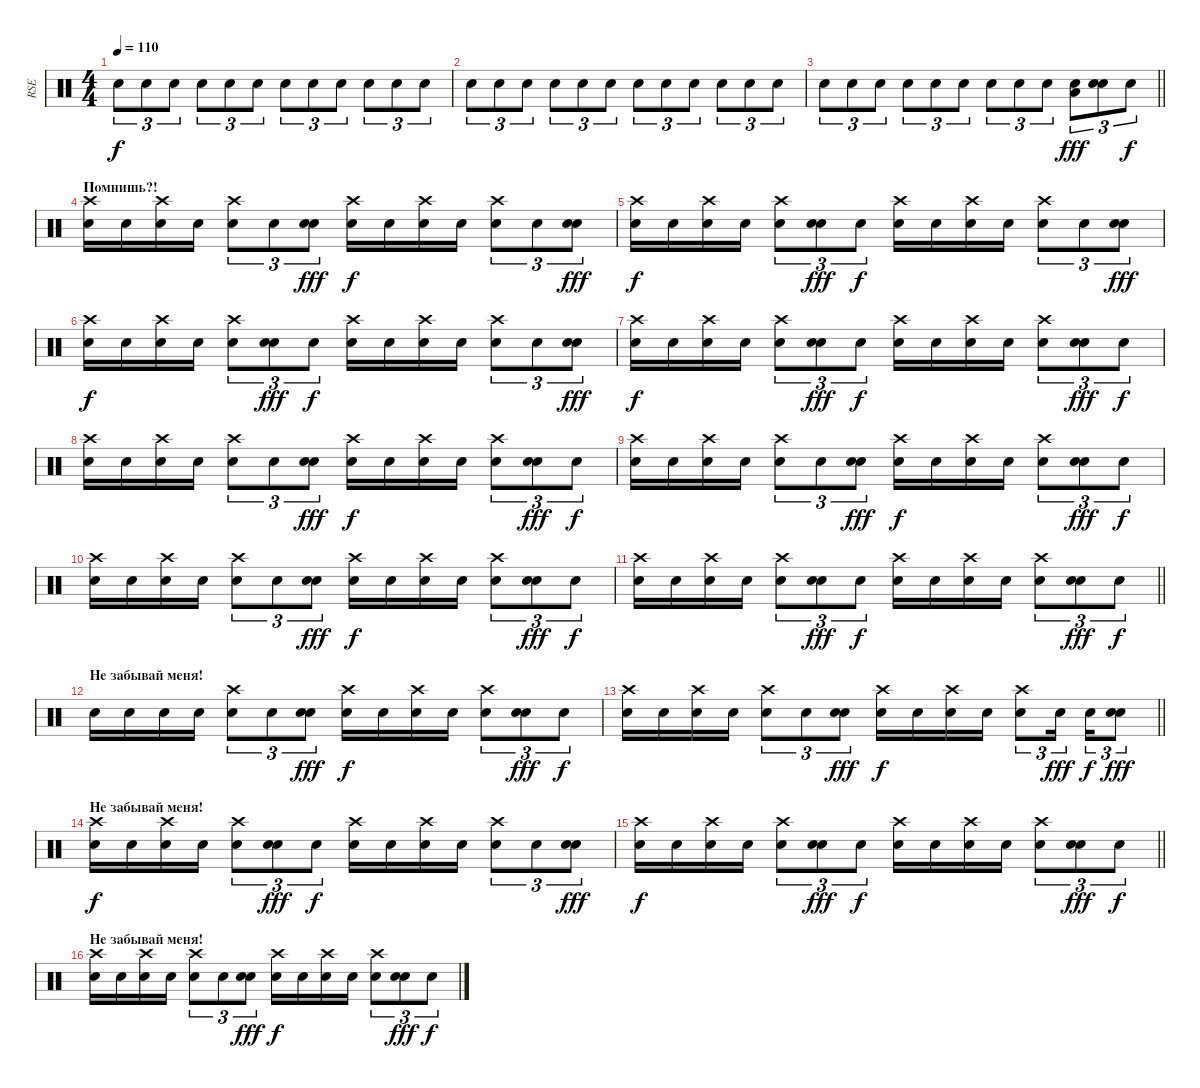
\track ("RSE" "RSE") {instrument percussion}
\staff
\articulation defaults
\ts (4 4)
\tempo 110
\clef neutral
\ks c "Snare (hit)".8{tu (3 2) dy f} "Snare (hit)".8{tu (3 2)} "Snare (hit)".8{tu (3 2)} "Snare (hit)".8{tu (3 2)} "Snare (hit)".8{tu (3 2)} "Snare (hit)".8{tu (3 2)} "Snare (hit)".8{tu (3 2)} "Snare (hit)".8{tu (3 2)} "Snare (hit)".8{tu (3 2)} "Snare (hit)".8{tu (3 2)} "Snare (hit)".8{tu (3 2)} "Snare (hit)".8{tu (3 2)}
|
"Snare (hit)".8{tu (3 2)} "Snare (hit)".8{tu (3 2)} "Snare (hit)".8{tu (3 2)} "Snare (hit)".8{tu (3 2)} "Snare (hit)".8{tu (3 2)} "Snare (hit)".8{tu (3 2)} "Snare (hit)".8{tu (3 2)} "Snare (hit)".8{tu (3 2)} "Snare (hit)".8{tu (3 2)} "Snare (hit)".8{tu (3 2)} "Snare (hit)".8{tu (3 2)} "Snare (hit)".8{tu (3 2)} |
\barLineRight lightlight "Snare (hit)".8{tu (3 2)} "Snare (hit)".8{tu (3 2)} "Snare (hit)".8{tu (3 2)} "Snare (hit)".8{tu (3 2)} "Snare (hit)".8{tu (3 2)} "Snare (hit)".8{tu (3 2)} "Snare (hit)".8{tu (3 2)} "Snare (hit)".8{tu (3 2)} "Snare (hit)".8{tu (3 2)}
("Low Floor Tom (hit)" "Snare (hit)").8{tu (3 2) dy fff} ("Electric Snare (hit)" "Snare (hit)").8{tu (3 2)} "Snare (hit)".8{tu (3 2) dy f} |
\section ("" "Помнишь?!")
("Crash high (hit)" "Snare (hit)").16 "Snare (hit)".16 ("Crash high (hit)" "Snare (hit)").16 "Snare (hit)".16 ("Crash high (hit)" "Snare (hit)").8{tu (3 2)} "Snare (hit)".8{tu (3 2)} ("Electric Snare (hit)" "Snare (hit)").8{tu (3 2) dy fff} ("Crash high (hit)" "Snare (hit)").16{dy f} "Snare (hit)".16 ("Crash high (hit)" "Snare (hit)").16 "Snare (hit)".16 ("Crash high (hit)" "Snare (hit)").8{tu (3 2)} "Snare (hit)".8{tu (3 2)} ("Electric Snare (hit)" "Snare (hit)").8{tu (3 2) dy fff} |
("Crash high (hit)" "Snare (hit)").16{dy f} "Snare (hit)".16 ("Crash high (hit)" "Snare (hit)").16 "Snare (hit)".16 ("Crash high (hit)" "Snare (hit)").8{tu (3 2)} ("Electric Snare (hit)" "Snare (hit)").8{tu (3 2) dy fff} "Snare (hit)".8{tu (3 2) dy f} ("Crash high (hit)" "Snare (hit)").16 "Snare (hit)".16 ("Crash high (hit)" "Snare (hit)").16 "Snare (hit)".16 ("Crash high (hit)" "Snare (hit)").8{tu (3 2)} "Snare (hit)".8{tu (3 2)} ("Electric Snare (hit)" "Snare (hit)").8{tu (3 2) dy fff} |
("Crash high (hit)" "Snare (hit)").16{dy f} "Snare (hit)".16 ("Crash high (hit)" "Snare (hit)").16 "Snare (hit)".16 ("Crash high (hit)" "Snare (hit)").8{tu (3 2)} ("Electric Snare (hit)" "Snare (hit)").8{tu (3 2) dy fff} "Snare (hit)".8{tu (3 2) dy f} ("Crash high (hit)" "Snare (hit)").16 "Snare (hit)".16 ("Crash high (hit)" "Snare (hit)").16 "Snare (hit)".16 ("Crash high (hit)" "Snare (hit)").8{tu (3 2)} "Snare (hit)".8{tu (3 2)} ("Electric Snare (hit)" "Snare (hit)").8{tu (3 2) dy fff} |
("Crash high (hit)" "Snare (hit)").16{dy f} "Snare (hit)".16 ("Crash high (hit)" "Snare (hit)").16 "Snare (hit)".16 ("Crash high (hit)" "Snare (hit)").8{tu (3 2)} ("Electric Snare (hit)" "Snare (hit)").8{tu (3 2) dy fff} "Snare (hit)".8{tu (3 2) dy f} ("Crash high (hit)" "Snare (hit)").16 "Snare (hit)".16 ("Crash high (hit)" "Snare (hit)").16 "Snare (hit)".16 ("Crash high (hit)" "Snare (hit)").8{tu (3 2)} ("Electric Snare (hit)" "Snare (hit)").8{tu (3 2) dy fff} "Snare (hit)".8{tu (3 2) dy f} |
("Crash high (hit)" "Snare (hit)").16 "Snare (hit)".16 ("Crash high (hit)" "Snare (hit)").16 "Snare (hit)".16 ("Crash high (hit)" "Snare (hit)").8{tu (3 2)} "Snare (hit)".8{tu (3 2)} ("Electric Snare (hit)" "Snare (hit)").8{tu (3 2) dy fff} ("Crash high (hit)" "Snare (hit)").16{dy f} "Snare (hit)".16 ("Crash high (hit)" "Snare (hit)").16 "Snare (hit)".16 ("Crash high (hit)" "Snare (hit)").8{tu (3 2)} ("Electric Snare (hit)" "Snare (hit)").8{tu (3 2) dy fff} "Snare (hit)".8{tu (3 2) dy f} |
("Crash high (hit)" "Snare (hit)").16 "Snare (hit)".16 ("Crash high (hit)" "Snare (hit)").16 "Snare (hit)".16 ("Crash high (hit)" "Snare (hit)").8{tu (3 2)} "Snare (hit)".8{tu (3 2)} ("Electric Snare (hit)" "Snare (hit)").8{tu (3 2) dy fff} ("Crash high (hit)" "Snare (hit)").16{dy f} "Snare (hit)".16 ("Crash high (hit)" "Snare (hit)").16 "Snare (hit)".16 ("Crash high (hit)" "Snare (hit)").8{tu (3 2)} ("Electric Snare (hit)" "Snare (hit)").8{tu (3 2) dy fff} "Snare (hit)".8{tu (3 2) dy f} |
("Crash high (hit)" "Snare (hit)").16 "Snare (hit)".16 ("Crash high (hit)" "Snare (hit)").16 "Snare (hit)".16 ("Crash high (hit)" "Snare (hit)").8{tu (3 2)} "Snare (hit)".8{tu (3 2)} ("Electric Snare (hit)" "Snare (hit)").8{tu (3 2) dy fff} ("Crash high (hit)" "Snare (hit)").16{dy f} "Snare (hit)".16 ("Crash high (hit)" "Snare (hit)").16 "Snare (hit)".16 ("Crash high (hit)" "Snare (hit)").8{tu (3 2)} ("Electric Snare (hit)" "Snare (hit)").8{tu (3 2) dy fff} "Snare (hit)".8{tu (3 2) dy f} |
\barLineRight lightlight
("Crash high (hit)" "Snare (hit)").16 "Snare (hit)".16 ("Crash high (hit)" "Snare (hit)").16 "Snare (hit)".16 ("Crash high (hit)" "Snare (hit)").8{tu (3 2)} ("Electric Snare (hit)" "Snare (hit)").8{tu (3 2) dy fff} "Snare (hit)".8{tu (3 2) dy f} ("Crash high (hit)" "Snare (hit)").16 "Snare (hit)".16 ("Crash high (hit)" "Snare (hit)").16 "Snare (hit)".16 ("Crash high (hit)" "Snare (hit)").8{tu (3 2)} ("Electric Snare (hit)" "Snare (hit)").8{tu (3 2) dy fff} "Snare (hit)".8{tu (3 2) dy f} |
\section ("" "Не забывай меня!")
"Snare (hit)".16 "Snare (hit)".16 "Snare (hit)".16 "Snare (hit)".16 ("Crash high (hit)" "Snare (hit)").8{tu (3 2)} "Snare (hit)".8{tu (3 2)} ("Electric Snare (hit)" "Snare (hit)").8{tu (3 2) dy fff} ("Crash high (hit)" "Snare (hit)").16{dy f} "Snare (hit)".16 ("Crash high (hit)" "Snare (hit)").16 "Snare (hit)".16 ("Crash high (hit)" "Snare (hit)").8{tu (3 2)} ("Electric Snare (hit)" "Snare (hit)").8{tu (3 2) dy fff} "Snare (hit)".8{tu (3 2) dy f} |
\barLineRight lightlight
("Crash high (hit)" "Snare (hit)").16 "Snare (hit)".16 ("Crash high (hit)" "Snare (hit)").16 "Snare (hit)".16 ("Crash high (hit)" "Snare (hit)").8{tu (3 2)} "Snare (hit)".8{tu (3 2)} ("Electric Snare (hit)" "Snare (hit)").8{tu (3 2) dy fff} ("Crash high (hit)" "Snare (hit)").16{dy f} "Snare (hit)".16 ("Crash high (hit)" "Snare (hit)").16 "Snare (hit)".16 ("Crash high (hit)" "Snare (hit)").8{tu (3 2)} "Snare (hit)".16{tu (3 2) dy fff beam splitsecondary} "Snare (hit)".16{tu (3 2) dy f} ("Electric Snare (hit)" "Snare (hit)").8{tu (3 2) dy fff} |
\section ("" "Не забывай меня!")
("Crash high (hit)" "Snare (hit)").16{dy f} "Snare (hit)".16 ("Crash high (hit)" "Snare (hit)").16 "Snare (hit)".16 ("Crash high (hit)" "Snare (hit)").8{tu (3 2)} ("Electric Snare (hit)" "Snare (hit)").8{tu (3 2) dy fff} "Snare (hit)".8{tu (3 2) dy f} ("Crash high (hit)" "Snare (hit)").16 "Snare (hit)".16 ("Crash high (hit)" "Snare (hit)").16 "Snare (hit)".16 ("Crash high (hit)" "Snare (hit)").8{tu (3 2)} "Snare (hit)".8{tu (3 2)} ("Electric Snare (hit)" "Snare (hit)").8{tu (3 2) dy fff} |
\barLineRight lightlight
("Crash high (hit)" "Snare (hit)").16{dy f} "Snare (hit)".16 ("Crash high (hit)" "Snare (hit)").16 "Snare (hit)".16 ("Crash high (hit)" "Snare (hit)").8{tu (3 2)} ("Electric Snare (hit)" "Snare (hit)").8{tu (3 2) dy fff} "Snare (hit)".8{tu (3 2) dy f} ("Crash high (hit)" "Snare (hit)").16 "Snare (hit)".16 ("Crash high (hit)" "Snare (hit)").16 "Snare (hit)".16 ("Crash high (hit)" "Snare (hit)").8{tu (3 2)} ("Electric Snare (hit)" "Snare (hit)").8{tu (3 2) dy fff} "Snare (hit)".8{tu (3 2) dy f} |
\section ("" "Не забывай меня!")
("Crash high (hit)" "Snare (hit)").16 "Snare (hit)".16 ("Crash high (hit)" "Snare (hit)").16 "Snare (hit)".16 ("Crash high (hit)" "Snare (hit)").8{tu (3 2)} "Snare (hit)".8{tu (3 2)} ("Electric Snare (hit)" "Snare (hit)").8{tu (3 2) dy fff} ("Crash high (hit)" "Snare (hit)").16{dy f} "Snare (hit)".16 ("Crash high (hit)" "Snare (hit)").16 "Snare (hit)".16 ("Crash high (hit)" "Snare (hit)").8{tu (3 2)} ("Electric Snare (hit)" "Snare (hit)").8{tu (3 2) dy fff} "Snare (hit)".8{tu (3 2) dy f}
